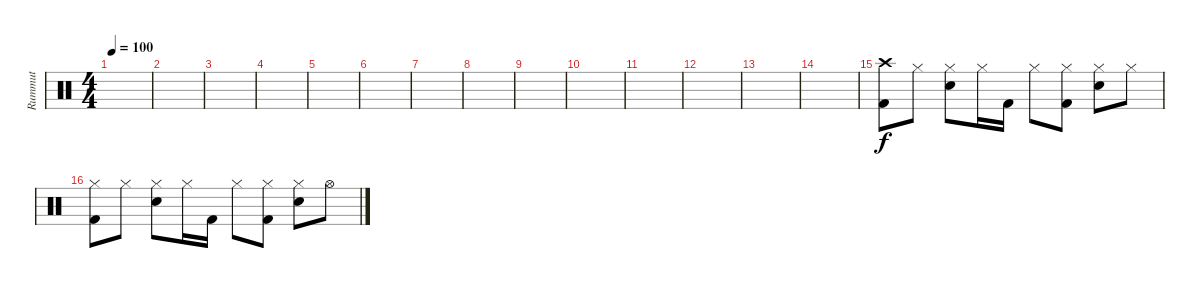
\track ("Rummut" "Rummut") {instrument percussion}
\staff {score}
\articulation defaults
\ts (4 4)
\tempo 100
\clef neutral
\ks c
|
|
|
|
|
|
|
|
|
|
|
|
|
|
("Crash high (hit)" "Kick (hit) 2").8{dy f} "Hi-Hat (closed)".8 ("Hi-Hat (closed)" "Snare (hit) 2").8 "Hi-Hat (closed)".16 "Kick (hit) 2".16 "Hi-Hat (closed)".8 ("Hi-Hat (closed)" "Kick (hit) 2").8 ("Hi-Hat (closed)" "Snare (hit) 2").8 "Hi-Hat (closed)".8 |
("Hi-Hat (closed)" "Kick (hit) 2").8 "Hi-Hat (closed)".8 ("Hi-Hat (closed)" "Snare (hit) 2").8 "Hi-Hat (closed)".16 "Kick (hit) 2".16 "Hi-Hat (closed)".8 ("Hi-Hat (closed)" "Kick (hit) 2").8 ("Hi-Hat (closed)" "Snare (hit) 2").8 "Hi-Hat (open)".8
